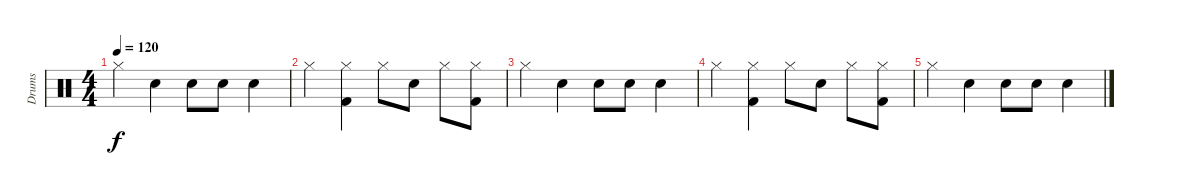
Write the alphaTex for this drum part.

\track ("Drums" "Drums") {instrument percussion}
\staff {score}
\articulation defaults
\ts (4 4)
\tempo 120
\clef neutral
\ks c "Hi-Hat (closed)".4{dy f} "Snare (hit) 2".4 "Snare (hit) 2".8 "Snare (hit) 2".8 "Snare (hit) 2".4
|
"Hi-Hat (closed)".4 ("Kick (hit) 2" "Hi-Hat (closed)").4 "Hi-Hat (closed)".8 "Snare (hit) 2".8 "Hi-Hat (closed)".8 ("Kick (hit) 2" "Hi-Hat (closed)").8 |
"Hi-Hat (closed)".4 "Snare (hit) 2".4 "Snare (hit) 2".8 "Snare (hit) 2".8 "Snare (hit) 2".4 |
"Hi-Hat (closed)".4 ("Kick (hit) 2" "Hi-Hat (closed)").4 "Hi-Hat (closed)".8 "Snare (hit) 2".8 "Hi-Hat (closed)".8 ("Kick (hit) 2" "Hi-Hat (closed)").8 |
"Hi-Hat (closed)".4 "Snare (hit) 2".4 "Snare (hit) 2".8 "Snare (hit) 2".8 "Snare (hit) 2".4
